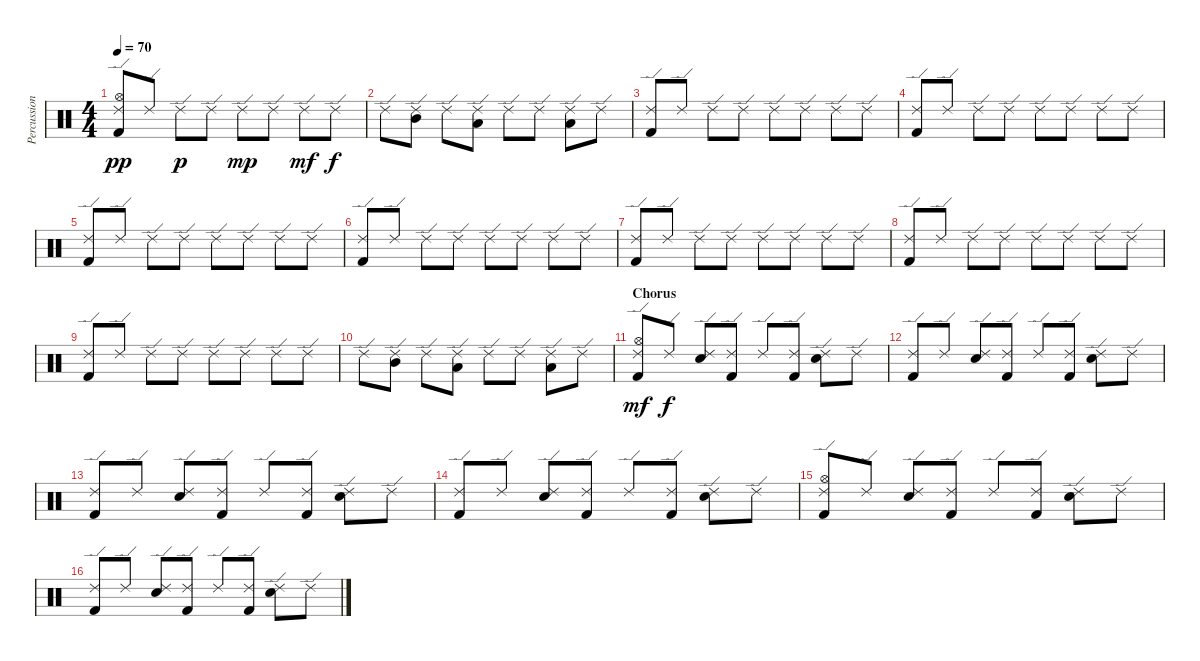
\track ("Percussion" "Percussion") {instrument percussion}
\staff {score}
\articulation defaults
\ts (4 4)
\tempo 70
\clef neutral
\ks c
("Ride (edge) 2" "Hi-Hat (open)" "Kick (hit) 2").8{dy pp} "Ride (edge) 2".8 "Ride (edge) 2".8{dy p} "Ride (edge) 2".8 "Ride (edge) 2".8{dy mp} "Ride (edge) 2".8 "Ride (edge) 2".8{dy mf} "Ride (edge) 2".8{dy f} |
"Ride (edge) 2".8 ("Ride (edge) 2" "Mid Tom (hit)").8 "Ride (edge) 2".8 ("Ride (edge) 2" "Low Tom (hit)").8 "Ride (edge) 2".8 "Ride (edge) 2".8 ("Ride (edge) 2" "Low Floor Tom (hit)").8 "Ride (edge) 2".8 |
("Ride (edge) 2" "Kick (hit) 2").8 "Ride (edge) 2".8 "Ride (edge) 2".8 "Ride (edge) 2".8 "Ride (edge) 2".8 "Ride (edge) 2".8 "Ride (edge) 2".8 "Ride (edge) 2".8 |
("Ride (edge) 2" "Kick (hit) 2").8 "Ride (edge) 2".8 "Ride (edge) 2".8 "Ride (edge) 2".8 "Ride (edge) 2".8 "Ride (edge) 2".8 "Ride (edge) 2".8 "Ride (edge) 2".8 |
("Ride (edge) 2" "Kick (hit) 2").8 "Ride (edge) 2".8 "Ride (edge) 2".8 "Ride (edge) 2".8 "Ride (edge) 2".8 "Ride (edge) 2".8 "Ride (edge) 2".8 "Ride (edge) 2".8 |
("Ride (edge) 2" "Kick (hit) 2").8 "Ride (edge) 2".8 "Ride (edge) 2".8 "Ride (edge) 2".8 "Ride (edge) 2".8 "Ride (edge) 2".8 "Ride (edge) 2".8 "Ride (edge) 2".8 |
("Ride (edge) 2" "Kick (hit) 2").8 "Ride (edge) 2".8 "Ride (edge) 2".8 "Ride (edge) 2".8 "Ride (edge) 2".8 "Ride (edge) 2".8 "Ride (edge) 2".8 "Ride (edge) 2".8 |
("Ride (edge) 2" "Kick (hit) 2").8 "Ride (edge) 2".8 "Ride (edge) 2".8 "Ride (edge) 2".8 "Ride (edge) 2".8 "Ride (edge) 2".8 "Ride (edge) 2".8 "Ride (edge) 2".8 |
("Ride (edge) 2" "Kick (hit) 2").8 "Ride (edge) 2".8 "Ride (edge) 2".8 "Ride (edge) 2".8 "Ride (edge) 2".8 "Ride (edge) 2".8 "Ride (edge) 2".8 "Ride (edge) 2".8 |
"Ride (edge) 2".8 ("Ride (edge) 2" "Mid Tom (hit)").8 "Ride (edge) 2".8 ("Ride (edge) 2" "Low Tom (hit)").8 "Ride (edge) 2".8 "Ride (edge) 2".8 ("Ride (edge) 2" "Low Floor Tom (hit)").8 "Ride (edge) 2".8 |
\section ("" "Chorus")
("Ride (edge) 2" "Hi-Hat (open)" "Kick (hit) 2").8{dy mf} "Ride (edge) 2".8{dy f} ("Ride (edge) 2" "Electric Snare (hit)").8 ("Ride (edge) 2" "Kick (hit) 2").8 "Ride (edge) 2".8 ("Ride (edge) 2" "Kick (hit) 2").8 ("Ride (edge) 2" "Electric Snare (hit)").8 "Ride (edge) 2".8 |
("Ride (edge) 2" "Kick (hit) 2").8 "Ride (edge) 2".8 ("Ride (edge) 2" "Electric Snare (hit)").8 ("Ride (edge) 2" "Kick (hit) 2").8 "Ride (edge) 2".8 ("Ride (edge) 2" "Kick (hit) 2").8 ("Ride (edge) 2" "Electric Snare (hit)").8 "Ride (edge) 2".8 |
("Ride (edge) 2" "Kick (hit) 2").8 "Ride (edge) 2".8 ("Ride (edge) 2" "Electric Snare (hit)").8 ("Ride (edge) 2" "Kick (hit) 2").8 "Ride (edge) 2".8 ("Ride (edge) 2" "Kick (hit) 2").8 ("Ride (edge) 2" "Electric Snare (hit)").8 "Ride (edge) 2".8 |
("Ride (edge) 2" "Kick (hit) 2").8 "Ride (edge) 2".8 ("Ride (edge) 2" "Electric Snare (hit)").8 ("Ride (edge) 2" "Kick (hit) 2").8 "Ride (edge) 2".8 ("Ride (edge) 2" "Kick (hit) 2").8 ("Ride (edge) 2" "Electric Snare (hit)").8 "Ride (edge) 2".8 |
("Ride (edge) 2" "Hi-Hat (open)" "Kick (hit) 2").8 "Ride (edge) 2".8 ("Ride (edge) 2" "Electric Snare (hit)").8 ("Ride (edge) 2" "Kick (hit) 2").8 "Ride (edge) 2".8 ("Ride (edge) 2" "Kick (hit) 2").8 ("Ride (edge) 2" "Electric Snare (hit)").8 "Ride (edge) 2".8 |
("Ride (edge) 2" "Kick (hit) 2").8 "Ride (edge) 2".8 ("Ride (edge) 2" "Electric Snare (hit)").8 ("Ride (edge) 2" "Kick (hit) 2").8 "Ride (edge) 2".8 ("Ride (edge) 2" "Kick (hit) 2").8 ("Ride (edge) 2" "Electric Snare (hit)").8 "Ride (edge) 2".8
